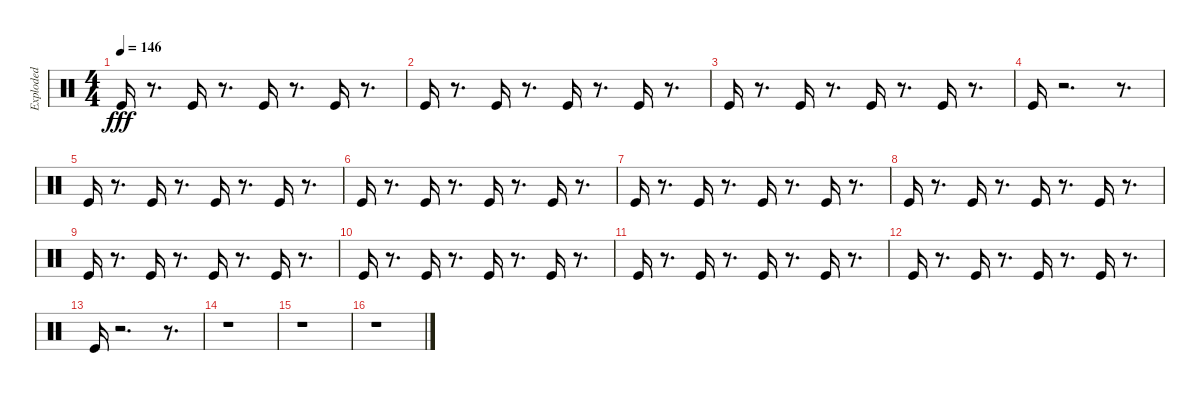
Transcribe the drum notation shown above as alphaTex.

\track ("Exploded" "Exploded") {instrument percussion}
\staff {score}
\articulation defaults
\ts (4 4)
\tempo 146
\clef neutral
\ks c "Kick (hit)".16{dy fff}
r.8{d} "Kick (hit)".16 r.8{d} "Kick (hit)".16 r.8{d} "Kick (hit)".16 r.8{d} |
"Kick (hit)".16 r.8{d} "Kick (hit)".16 r.8{d} "Kick (hit)".16 r.8{d} "Kick (hit)".16 r.8{d} |
"Kick (hit)".16 r.8{d} "Kick (hit)".16 r.8{d} "Kick (hit)".16 r.8{d} "Kick (hit)".16 r.8{d} |
"Kick (hit)".16 r.2{d} r.8{d} |
"Kick (hit)".16 r.8{d} "Kick (hit)".16 r.8{d} "Kick (hit)".16 r.8{d} "Kick (hit)".16 r.8{d} |
"Kick (hit)".16 r.8{d} "Kick (hit)".16 r.8{d} "Kick (hit)".16 r.8{d} "Kick (hit)".16 r.8{d} |
"Kick (hit)".16 r.8{d} "Kick (hit)".16 r.8{d} "Kick (hit)".16 r.8{d} "Kick (hit)".16 r.8{d} |
"Kick (hit)".16 r.8{d} "Kick (hit)".16 r.8{d} "Kick (hit)".16 r.8{d} "Kick (hit)".16 r.8{d} |
"Kick (hit)".16 r.8{d} "Kick (hit)".16 r.8{d} "Kick (hit)".16 r.8{d} "Kick (hit)".16 r.8{d} |
"Kick (hit)".16 r.8{d} "Kick (hit)".16 r.8{d} "Kick (hit)".16 r.8{d} "Kick (hit)".16 r.8{d} |
"Kick (hit)".16 r.8{d} "Kick (hit)".16 r.8{d} "Kick (hit)".16 r.8{d} "Kick (hit)".16 r.8{d} |
"Kick (hit)".16 r.8{d} "Kick (hit)".16 r.8{d} "Kick (hit)".16 r.8{d} "Kick (hit)".16 r.8{d} |
"Kick (hit)".16 r.2{d} r.8{d} |
r.1 |
r.1 |
r.1
